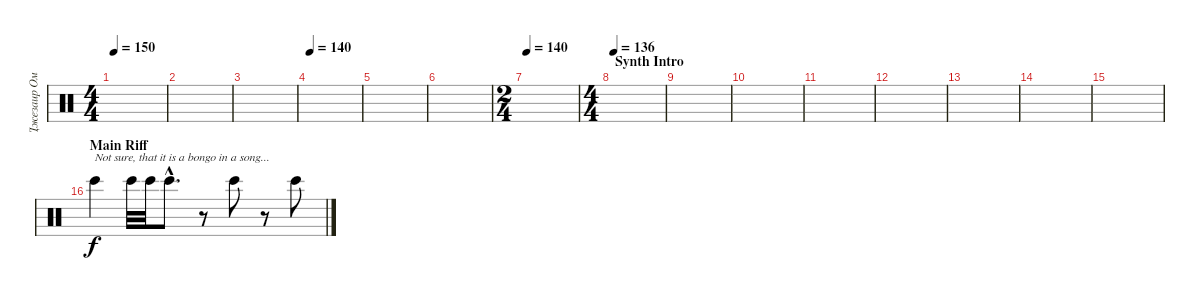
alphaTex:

\track ("Джезаир Омер - Бонго" "Джезаир Ом") {instrument percussion}
\staff {score}
\articulation defaults
\ts (4 4)
\tempo 150
\clef neutral
\ks c
|
|
|
\tempo 140
|
|
|
\ts (2 4)
\tempo 140
|
\ts (4 4)
\section ("" "Synth Intro")
\tempo 136
|
|
|
|
|
|
|
|
\section ("" "Main Riff")
"Bongo High (hit)".4{txt "Not sure, that it is a bongo in a song..."} "Bongo High (hit)".32 "Bongo High (hit)".32 "Bongo High (hit)"{hac}.8{d} r.8 "Bongo High (hit)".8 r.8 "Bongo High (hit)".8
